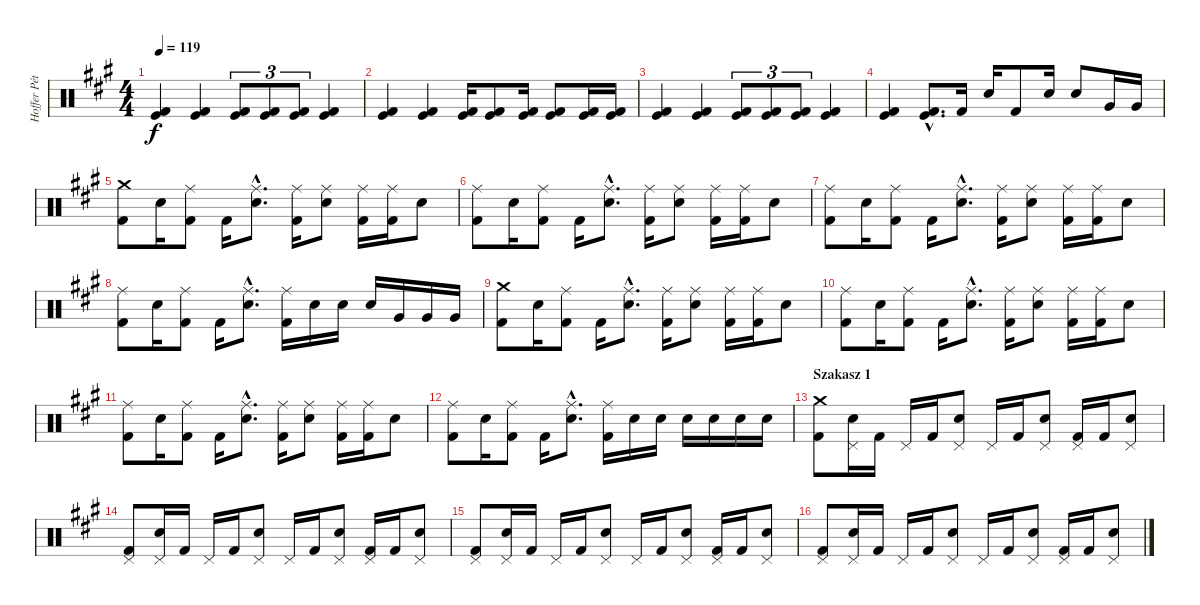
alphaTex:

\track ("Hoffer Péter" "Hoffer Pét") {instrument percussion}
\staff {score}
\articulation defaults
\ts (4 4)
\tempo 119
\clef neutral
\ks f#minor
("Kick (hit) 2" "Kick (hit)").4{dy f} ("Kick (hit) 2" "Kick (hit)").4 ("Kick (hit) 2" "Kick (hit)").8{tu (3 2)} ("Kick (hit) 2" "Kick (hit)").8{tu (3 2)} ("Kick (hit) 2" "Kick (hit)").8{tu (3 2)} ("Kick (hit) 2" "Kick (hit)").4 |
("Kick (hit) 2" "Kick (hit)").4 ("Kick (hit) 2" "Kick (hit)").4 ("Kick (hit) 2" "Kick (hit)").16 ("Kick (hit) 2" "Kick (hit)").8 ("Kick (hit) 2" "Kick (hit)").16 ("Kick (hit) 2" "Kick (hit)").8 ("Kick (hit) 2" "Kick (hit)").16 ("Kick (hit) 2" "Kick (hit)").16 |
("Kick (hit) 2" "Kick (hit)").4 ("Kick (hit) 2" "Kick (hit)").4 ("Kick (hit) 2" "Kick (hit)").8{tu (3 2)} ("Kick (hit) 2" "Kick (hit)").8{tu (3 2)} ("Kick (hit) 2" "Kick (hit)").8{tu (3 2)} ("Kick (hit) 2" "Kick (hit)").4 |
("Kick (hit) 2" "Kick (hit)").4 ("Kick (hit) 2"{hac} "Kick (hit)"{hac}).8{d} "Kick (hit) 2".16 "Snare (hit) 2".16 "Kick (hit) 2".8 "Snare (hit) 2".16 "Snare (hit) 2".8 "Very Low Tom (hit)".16 "Very Low Tom (hit)".16 |
("Crash medium (hit)" "Kick (hit) 2").8 "Snare (hit) 2".16 ("Ride (middle)" "Kick (hit) 2").8 "Kick (hit) 2".16 ("Ride (middle)"{hac} "Snare (hit) 2"{hac}).8{d} ("Ride (middle)" "Kick (hit) 2").16 ("Ride (middle)" "Snare (hit) 2").8 ("Ride (middle)" "Kick (hit) 2").16 ("Ride (middle)" "Kick (hit) 2").16 "Snare (hit) 2".8 |
("Ride (middle)" "Kick (hit) 2").8 "Snare (hit) 2".16 ("Ride (middle)" "Kick (hit) 2").8 "Kick (hit) 2".16 ("Ride (middle)"{hac} "Snare (hit) 2"{hac}).8{d} ("Ride (middle)" "Kick (hit) 2").16 ("Ride (middle)" "Snare (hit) 2").8 ("Ride (middle)" "Kick (hit) 2").16 ("Ride (middle)" "Kick (hit) 2").16 "Snare (hit) 2".8 |
("Ride (middle)" "Kick (hit) 2").8 "Snare (hit) 2".16 ("Ride (middle)" "Kick (hit) 2").8 "Kick (hit) 2".16 ("Ride (middle)"{hac} "Snare (hit) 2"{hac}).8{d} ("Ride (middle)" "Kick (hit) 2").16 ("Ride (middle)" "Snare (hit) 2").8 ("Ride (middle)" "Kick (hit) 2").16 ("Ride (middle)" "Kick (hit) 2").16 "Snare (hit) 2".8 |
("Ride (middle)" "Kick (hit) 2").8 "Snare (hit) 2".16 ("Ride (middle)" "Kick (hit) 2").8 "Kick (hit) 2".16 ("Ride (middle)"{hac} "Snare (hit) 2"{hac}).8{d} ("Ride (middle)" "Kick (hit) 2").16 "Snare (hit) 2".16 "Snare (hit) 2".16 "Snare (hit) 2".16 "Very Low Tom (hit)".16 "Very Low Tom (hit)".16 "Very Low Tom (hit)".16 |
("Crash medium (hit)" "Kick (hit) 2").8 "Snare (hit) 2".16 ("Ride (middle)" "Kick (hit) 2").8 "Kick (hit) 2".16 ("Ride (middle)"{hac} "Snare (hit) 2"{hac}).8{d} ("Ride (middle)" "Kick (hit) 2").16 ("Ride (middle)" "Snare (hit) 2").8 ("Ride (middle)" "Kick (hit) 2").16 ("Ride (middle)" "Kick (hit) 2").16 "Snare (hit) 2".8 |
("Ride (middle)" "Kick (hit) 2").8 "Snare (hit) 2".16 ("Ride (middle)" "Kick (hit) 2").8 "Kick (hit) 2".16 ("Ride (middle)"{hac} "Snare (hit) 2"{hac}).8{d} ("Ride (middle)" "Kick (hit) 2").16 ("Ride (middle)" "Snare (hit) 2").8 ("Ride (middle)" "Kick (hit) 2").16 ("Ride (middle)" "Kick (hit) 2").16 "Snare (hit) 2".8 |
("Ride (middle)" "Kick (hit) 2").8 "Snare (hit) 2".16 ("Ride (middle)" "Kick (hit) 2").8 "Kick (hit) 2".16 ("Ride (middle)"{hac} "Snare (hit) 2"{hac}).8{d} ("Ride (middle)" "Kick (hit) 2").16 ("Ride (middle)" "Snare (hit) 2").8 ("Ride (middle)" "Kick (hit) 2").16 ("Ride (middle)" "Kick (hit) 2").16 "Snare (hit) 2".8 |
("Ride (middle)" "Kick (hit) 2").8 "Snare (hit) 2".16 ("Ride (middle)" "Kick (hit) 2").8 "Kick (hit) 2".16 ("Ride (middle)"{hac} "Snare (hit) 2"{hac}).8{d} ("Ride (middle)" "Kick (hit) 2").16 "Snare (hit) 2".16 "Snare (hit) 2".16 "Snare (hit) 2".16 "Snare (hit) 2".16 "Snare (hit) 2".16 "Snare (hit) 2".16 |
\section ("" "Szakasz 1")
("Crash medium (hit)" "Kick (hit) 2").8 ("Pedal Hi-Hat (hit)" "Snare (hit) 2").16 "Kick (hit) 2".16 "Pedal Hi-Hat (hit)".16 "Kick (hit) 2".16 ("Pedal Hi-Hat (hit)" "Snare (hit) 2").8 "Pedal Hi-Hat (hit)".16 "Kick (hit) 2".16 ("Pedal Hi-Hat (hit)" "Snare (hit) 2").8 ("Pedal Hi-Hat (hit)" "Kick (hit) 2").16 "Kick (hit) 2".16 ("Pedal Hi-Hat (hit)" "Snare (hit) 2").8 |
("Pedal Hi-Hat (hit)" "Kick (hit) 2").8 ("Pedal Hi-Hat (hit)" "Snare (hit) 2").16 "Kick (hit) 2".16 "Pedal Hi-Hat (hit)".16 "Kick (hit) 2".16 ("Pedal Hi-Hat (hit)" "Snare (hit) 2").8 "Pedal Hi-Hat (hit)".16 "Kick (hit) 2".16 ("Pedal Hi-Hat (hit)" "Snare (hit) 2").8 ("Pedal Hi-Hat (hit)" "Kick (hit) 2").16 "Kick (hit) 2".16 ("Pedal Hi-Hat (hit)" "Snare (hit) 2").8 |
("Pedal Hi-Hat (hit)" "Kick (hit) 2").8 ("Pedal Hi-Hat (hit)" "Snare (hit) 2").16 "Kick (hit) 2".16 "Pedal Hi-Hat (hit)".16 "Kick (hit) 2".16 ("Pedal Hi-Hat (hit)" "Snare (hit) 2").8 "Pedal Hi-Hat (hit)".16 "Kick (hit) 2".16 ("Pedal Hi-Hat (hit)" "Snare (hit) 2").8 ("Pedal Hi-Hat (hit)" "Kick (hit) 2").16 "Kick (hit) 2".16 ("Pedal Hi-Hat (hit)" "Snare (hit) 2").8 |
("Pedal Hi-Hat (hit)" "Kick (hit) 2").8 ("Pedal Hi-Hat (hit)" "Snare (hit) 2").16 "Kick (hit) 2".16 "Pedal Hi-Hat (hit)".16 "Kick (hit) 2".16 ("Pedal Hi-Hat (hit)" "Snare (hit) 2").8 "Pedal Hi-Hat (hit)".16 "Kick (hit) 2".16 ("Pedal Hi-Hat (hit)" "Snare (hit) 2").8 ("Pedal Hi-Hat (hit)" "Kick (hit) 2").16 "Kick (hit) 2".16 ("Pedal Hi-Hat (hit)" "Snare (hit) 2").8
